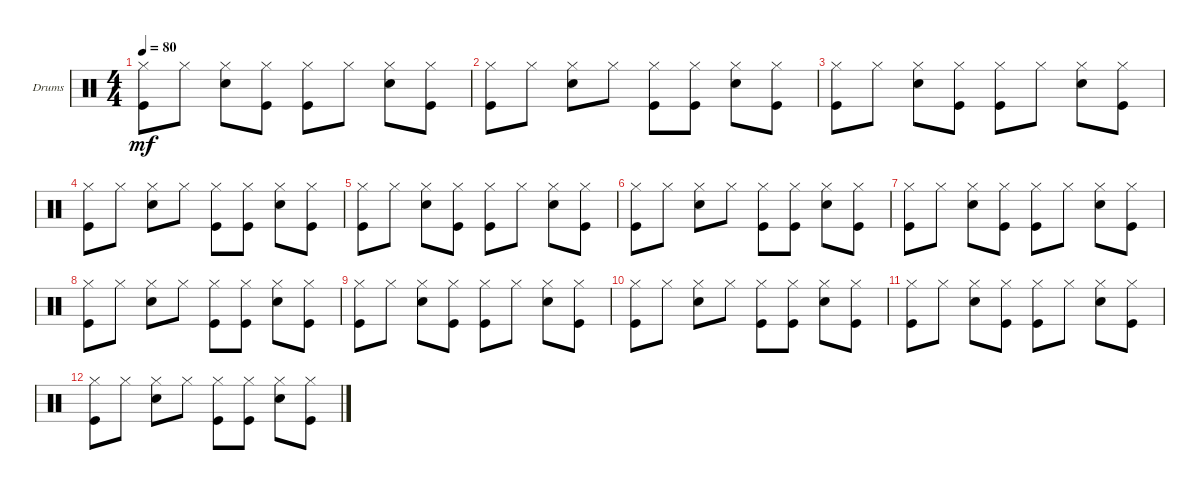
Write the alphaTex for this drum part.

\defaultSystemsLayout 4
\bracketExtendMode groupsimilarinstruments
\firstSystemTrackNameOrientation horizontal
\otherSystemsTrackNameOrientation horizontal
\track ("Drumkit" "Drums") {instrument percussion}
\staff {score}
\articulation defaults
\ts (4 4)
\tempo 80
\clef neutral
\ks c
("Hi-Hat (closed)" "Kick (hit)").8{dy mf} "Hi-Hat (closed)".8 ("Hi-Hat (closed)" "Snare (hit) 2").8 ("Hi-Hat (closed)" "Kick (hit)").8 ("Hi-Hat (closed)" "Kick (hit)").8 "Hi-Hat (closed)".8 ("Hi-Hat (closed)" "Snare (hit) 2").8 ("Hi-Hat (closed)" "Kick (hit)").8 |
("Hi-Hat (closed)" "Kick (hit)").8 "Hi-Hat (closed)".8 ("Hi-Hat (closed)" "Snare (hit) 2").8 "Hi-Hat (closed)".8 ("Hi-Hat (closed)" "Kick (hit)").8 ("Hi-Hat (closed)" "Kick (hit)").8 ("Hi-Hat (closed)" "Snare (hit) 2").8 ("Hi-Hat (closed)" "Kick (hit)").8 |
("Hi-Hat (closed)" "Kick (hit)").8 "Hi-Hat (closed)".8 ("Hi-Hat (closed)" "Snare (hit) 2").8 ("Hi-Hat (closed)" "Kick (hit)").8 ("Hi-Hat (closed)" "Kick (hit)").8 "Hi-Hat (closed)".8 ("Hi-Hat (closed)" "Snare (hit) 2").8 ("Hi-Hat (closed)" "Kick (hit)").8 |
("Hi-Hat (closed)" "Kick (hit)").8 "Hi-Hat (closed)".8 ("Hi-Hat (closed)" "Snare (hit) 2").8 "Hi-Hat (closed)".8 ("Hi-Hat (closed)" "Kick (hit)").8 ("Hi-Hat (closed)" "Kick (hit)").8 ("Hi-Hat (closed)" "Snare (hit) 2").8 ("Hi-Hat (closed)" "Kick (hit)").8 |
("Hi-Hat (closed)" "Kick (hit)").8 "Hi-Hat (closed)".8 ("Hi-Hat (closed)" "Snare (hit) 2").8 ("Hi-Hat (closed)" "Kick (hit)").8 ("Hi-Hat (closed)" "Kick (hit)").8 "Hi-Hat (closed)".8 ("Hi-Hat (closed)" "Snare (hit) 2").8 ("Hi-Hat (closed)" "Kick (hit)").8 |
("Hi-Hat (closed)" "Kick (hit)").8 "Hi-Hat (closed)".8 ("Hi-Hat (closed)" "Snare (hit) 2").8 "Hi-Hat (closed)".8 ("Hi-Hat (closed)" "Kick (hit)").8 ("Hi-Hat (closed)" "Kick (hit)").8 ("Hi-Hat (closed)" "Snare (hit) 2").8 ("Hi-Hat (closed)" "Kick (hit)").8 |
("Hi-Hat (closed)" "Kick (hit)").8 "Hi-Hat (closed)".8 ("Hi-Hat (closed)" "Snare (hit) 2").8 ("Hi-Hat (closed)" "Kick (hit)").8 ("Hi-Hat (closed)" "Kick (hit)").8 "Hi-Hat (closed)".8 ("Hi-Hat (closed)" "Snare (hit) 2").8 ("Hi-Hat (closed)" "Kick (hit)").8 |
("Hi-Hat (closed)" "Kick (hit)").8 "Hi-Hat (closed)".8 ("Hi-Hat (closed)" "Snare (hit) 2").8 "Hi-Hat (closed)".8 ("Hi-Hat (closed)" "Kick (hit)").8 ("Hi-Hat (closed)" "Kick (hit)").8 ("Hi-Hat (closed)" "Snare (hit) 2").8 ("Hi-Hat (closed)" "Kick (hit)").8 |
("Hi-Hat (closed)" "Kick (hit)").8 "Hi-Hat (closed)".8 ("Hi-Hat (closed)" "Snare (hit) 2").8 ("Hi-Hat (closed)" "Kick (hit)").8 ("Hi-Hat (closed)" "Kick (hit)").8 "Hi-Hat (closed)".8 ("Hi-Hat (closed)" "Snare (hit) 2").8 ("Hi-Hat (closed)" "Kick (hit)").8 |
("Hi-Hat (closed)" "Kick (hit)").8 "Hi-Hat (closed)".8 ("Hi-Hat (closed)" "Snare (hit) 2").8 "Hi-Hat (closed)".8 ("Hi-Hat (closed)" "Kick (hit)").8 ("Hi-Hat (closed)" "Kick (hit)").8 ("Hi-Hat (closed)" "Snare (hit) 2").8 ("Hi-Hat (closed)" "Kick (hit)").8 |
("Hi-Hat (closed)" "Kick (hit)").8 "Hi-Hat (closed)".8 ("Hi-Hat (closed)" "Snare (hit) 2").8 ("Hi-Hat (closed)" "Kick (hit)").8 ("Hi-Hat (closed)" "Kick (hit)").8 "Hi-Hat (closed)".8 ("Hi-Hat (closed)" "Snare (hit) 2").8 ("Hi-Hat (closed)" "Kick (hit)").8 |
("Hi-Hat (closed)" "Kick (hit)").8 "Hi-Hat (closed)".8 ("Hi-Hat (closed)" "Snare (hit) 2").8 "Hi-Hat (closed)".8 ("Hi-Hat (closed)" "Kick (hit)").8 ("Hi-Hat (closed)" "Kick (hit)").8 ("Hi-Hat (closed)" "Snare (hit) 2").8 ("Hi-Hat (closed)" "Kick (hit)").8
